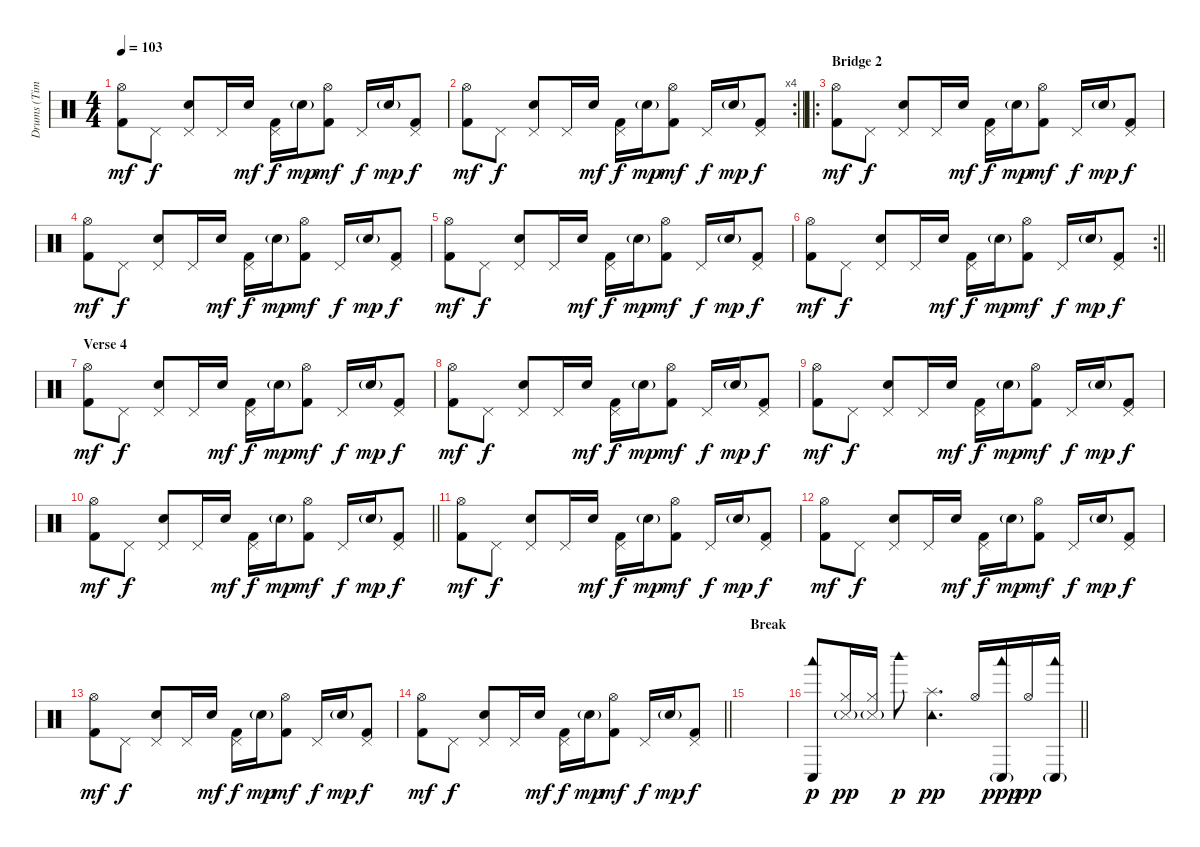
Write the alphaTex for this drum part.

\track ("Drums (Tim Alexander)" "Drums (Tim") {instrument percussion}
\staff {score}
\articulation defaults
\ts (4 4)
\tempo 103
\clef neutral
\ks c
("Hi-Hat (open)" "Kick (hit) 2").8{dy mf} "Pedal Hi-Hat (hit)".8{dy f} ("Pedal Hi-Hat (hit)" "Electric Snare (hit)").8 "Pedal Hi-Hat (hit)".16 "Electric Snare (hit)".16{dy mf} ("Pedal Hi-Hat (hit)" "Kick (hit) 2").16{dy f} "Electric Snare (hit)"{g}.16{dy mp} ("Hi-Hat (open)" "Kick (hit) 2").8{dy mf} "Pedal Hi-Hat (hit)".16{dy f} "Electric Snare (hit)"{g}.16{dy mp} ("Pedal Hi-Hat (hit)" "Kick (hit) 2").8{dy f} |
\rc 4
\barLineRight lightlight
("Hi-Hat (open)" "Kick (hit) 2").8{dy mf} "Pedal Hi-Hat (hit)".8{dy f} ("Pedal Hi-Hat (hit)" "Electric Snare (hit)").8 "Pedal Hi-Hat (hit)".16 "Electric Snare (hit)".16{dy mf} ("Pedal Hi-Hat (hit)" "Kick (hit) 2").16{dy f} "Electric Snare (hit)"{g}.16{dy mp} ("Hi-Hat (open)" "Kick (hit) 2").8{dy mf} "Pedal Hi-Hat (hit)".16{dy f} "Electric Snare (hit)"{g}.16{dy mp} ("Pedal Hi-Hat (hit)" "Kick (hit) 2").8{dy f} |
\ro
\section ("" "Bridge 2")
("Hi-Hat (open)" "Kick (hit) 2").8{dy mf} "Pedal Hi-Hat (hit)".8{dy f} ("Pedal Hi-Hat (hit)" "Electric Snare (hit)").8 "Pedal Hi-Hat (hit)".16 "Electric Snare (hit)".16{dy mf} ("Pedal Hi-Hat (hit)" "Kick (hit) 2").16{dy f} "Electric Snare (hit)"{g}.16{dy mp} ("Hi-Hat (open)" "Kick (hit) 2").8{dy mf} "Pedal Hi-Hat (hit)".16{dy f} "Electric Snare (hit)"{g}.16{dy mp} ("Pedal Hi-Hat (hit)" "Kick (hit) 2").8{dy f} |
("Hi-Hat (open)" "Kick (hit) 2").8{dy mf} "Pedal Hi-Hat (hit)".8{dy f} ("Pedal Hi-Hat (hit)" "Electric Snare (hit)").8 "Pedal Hi-Hat (hit)".16 "Electric Snare (hit)".16{dy mf} ("Pedal Hi-Hat (hit)" "Kick (hit) 2").16{dy f} "Electric Snare (hit)"{g}.16{dy mp} ("Hi-Hat (open)" "Kick (hit) 2").8{dy mf} "Pedal Hi-Hat (hit)".16{dy f} "Electric Snare (hit)"{g}.16{dy mp} ("Pedal Hi-Hat (hit)" "Kick (hit) 2").8{dy f} |
("Hi-Hat (open)" "Kick (hit) 2").8{dy mf} "Pedal Hi-Hat (hit)".8{dy f} ("Pedal Hi-Hat (hit)" "Electric Snare (hit)").8 "Pedal Hi-Hat (hit)".16 "Electric Snare (hit)".16{dy mf} ("Pedal Hi-Hat (hit)" "Kick (hit) 2").16{dy f} "Electric Snare (hit)"{g}.16{dy mp} ("Hi-Hat (open)" "Kick (hit) 2").8{dy mf} "Pedal Hi-Hat (hit)".16{dy f} "Electric Snare (hit)"{g}.16{dy mp} ("Pedal Hi-Hat (hit)" "Kick (hit) 2").8{dy f} |
\rc 2
\barLineRight lightlight
("Hi-Hat (open)" "Kick (hit) 2").8{dy mf} "Pedal Hi-Hat (hit)".8{dy f} ("Pedal Hi-Hat (hit)" "Electric Snare (hit)").8 "Pedal Hi-Hat (hit)".16 "Electric Snare (hit)".16{dy mf} ("Pedal Hi-Hat (hit)" "Kick (hit) 2").16{dy f} "Electric Snare (hit)"{g}.16{dy mp} ("Hi-Hat (open)" "Kick (hit) 2").8{dy mf} "Pedal Hi-Hat (hit)".16{dy f} "Electric Snare (hit)"{g}.16{dy mp} ("Pedal Hi-Hat (hit)" "Kick (hit) 2").8{dy f} |
\section ("" "Verse 4")
("Hi-Hat (open)" "Kick (hit) 2").8{dy mf} "Pedal Hi-Hat (hit)".8{dy f} ("Pedal Hi-Hat (hit)" "Electric Snare (hit)").8 "Pedal Hi-Hat (hit)".16 "Electric Snare (hit)".16{dy mf} ("Pedal Hi-Hat (hit)" "Kick (hit) 2").16{dy f} "Electric Snare (hit)"{g}.16{dy mp} ("Hi-Hat (open)" "Kick (hit) 2").8{dy mf} "Pedal Hi-Hat (hit)".16{dy f} "Electric Snare (hit)"{g}.16{dy mp} ("Pedal Hi-Hat (hit)" "Kick (hit) 2").8{dy f} |
("Hi-Hat (open)" "Kick (hit) 2").8{dy mf} "Pedal Hi-Hat (hit)".8{dy f} ("Pedal Hi-Hat (hit)" "Electric Snare (hit)").8 "Pedal Hi-Hat (hit)".16 "Electric Snare (hit)".16{dy mf} ("Pedal Hi-Hat (hit)" "Kick (hit) 2").16{dy f} "Electric Snare (hit)"{g}.16{dy mp} ("Hi-Hat (open)" "Kick (hit) 2").8{dy mf} "Pedal Hi-Hat (hit)".16{dy f} "Electric Snare (hit)"{g}.16{dy mp} ("Pedal Hi-Hat (hit)" "Kick (hit) 2").8{dy f} |
("Hi-Hat (open)" "Kick (hit) 2").8{dy mf} "Pedal Hi-Hat (hit)".8{dy f} ("Pedal Hi-Hat (hit)" "Electric Snare (hit)").8 "Pedal Hi-Hat (hit)".16 "Electric Snare (hit)".16{dy mf} ("Pedal Hi-Hat (hit)" "Kick (hit) 2").16{dy f} "Electric Snare (hit)"{g}.16{dy mp} ("Hi-Hat (open)" "Kick (hit) 2").8{dy mf} "Pedal Hi-Hat (hit)".16{dy f} "Electric Snare (hit)"{g}.16{dy mp} ("Pedal Hi-Hat (hit)" "Kick (hit) 2").8{dy f} |
\barLineRight lightlight
("Hi-Hat (open)" "Kick (hit) 2").8{dy mf} "Pedal Hi-Hat (hit)".8{dy f} ("Pedal Hi-Hat (hit)" "Electric Snare (hit)").8 "Pedal Hi-Hat (hit)".16 "Electric Snare (hit)".16{dy mf} ("Pedal Hi-Hat (hit)" "Kick (hit) 2").16{dy f} "Electric Snare (hit)"{g}.16{dy mp} ("Hi-Hat (open)" "Kick (hit) 2").8{dy mf} "Pedal Hi-Hat (hit)".16{dy f} "Electric Snare (hit)"{g}.16{dy mp} ("Pedal Hi-Hat (hit)" "Kick (hit) 2").8{dy f} |
("Hi-Hat (open)" "Kick (hit) 2").8{dy mf} "Pedal Hi-Hat (hit)".8{dy f} ("Pedal Hi-Hat (hit)" "Electric Snare (hit)").8 "Pedal Hi-Hat (hit)".16 "Electric Snare (hit)".16{dy mf} ("Pedal Hi-Hat (hit)" "Kick (hit) 2").16{dy f} "Electric Snare (hit)"{g}.16{dy mp} ("Hi-Hat (open)" "Kick (hit) 2").8{dy mf} "Pedal Hi-Hat (hit)".16{dy f} "Electric Snare (hit)"{g}.16{dy mp} ("Pedal Hi-Hat (hit)" "Kick (hit) 2").8{dy f} |
("Hi-Hat (open)" "Kick (hit) 2").8{dy mf} "Pedal Hi-Hat (hit)".8{dy f} ("Pedal Hi-Hat (hit)" "Electric Snare (hit)").8 "Pedal Hi-Hat (hit)".16 "Electric Snare (hit)".16{dy mf} ("Pedal Hi-Hat (hit)" "Kick (hit) 2").16{dy f} "Electric Snare (hit)"{g}.16{dy mp} ("Hi-Hat (open)" "Kick (hit) 2").8{dy mf} "Pedal Hi-Hat (hit)".16{dy f} "Electric Snare (hit)"{g}.16{dy mp} ("Pedal Hi-Hat (hit)" "Kick (hit) 2").8{dy f} |
("Hi-Hat (open)" "Kick (hit) 2").8{dy mf} "Pedal Hi-Hat (hit)".8{dy f} ("Pedal Hi-Hat (hit)" "Electric Snare (hit)").8 "Pedal Hi-Hat (hit)".16 "Electric Snare (hit)".16{dy mf} ("Pedal Hi-Hat (hit)" "Kick (hit) 2").16{dy f} "Electric Snare (hit)"{g}.16{dy mp} ("Hi-Hat (open)" "Kick (hit) 2").8{dy mf} "Pedal Hi-Hat (hit)".16{dy f} "Electric Snare (hit)"{g}.16{dy mp} ("Pedal Hi-Hat (hit)" "Kick (hit) 2").8{dy f} |
\barLineRight lightlight
("Hi-Hat (open)" "Kick (hit) 2").8{dy mf} "Pedal Hi-Hat (hit)".8{dy f} ("Pedal Hi-Hat (hit)" "Electric Snare (hit)").8 "Pedal Hi-Hat (hit)".16 "Electric Snare (hit)".16{dy mf} ("Pedal Hi-Hat (hit)" "Kick (hit) 2").16{dy f} "Electric Snare (hit)"{g}.16{dy mp} ("Hi-Hat (open)" "Kick (hit) 2").8{dy mf} "Pedal Hi-Hat (hit)".16{dy f} "Electric Snare (hit)"{g}.16{dy mp} ("Pedal Hi-Hat (hit)" "Kick (hit) 2").8{dy f} |
\section ("" "Break")
|
\barLineRight lightlight
("Conga low (hit)" "Woodblock low (hit)").8{dy p volume 8} ("Hi-Hat (closed)" "Snare (side stick) 3"{g}).16{dy pp} ("Hi-Hat (closed)" "Snare (side stick) 3"{g}).16 "Woodblock high (hit)".8{dy p} ("Splash (hit)" "Tambourine (hit)").4{d dy pp} "Hi-Hat (open)".16 ("Conga low (hit)"{g} "Woodblock low (hit)").16{dy ppp} "Hi-Hat (open)".16{dy pp} ("Conga low (hit)"{g} "Woodblock low (hit)").16
